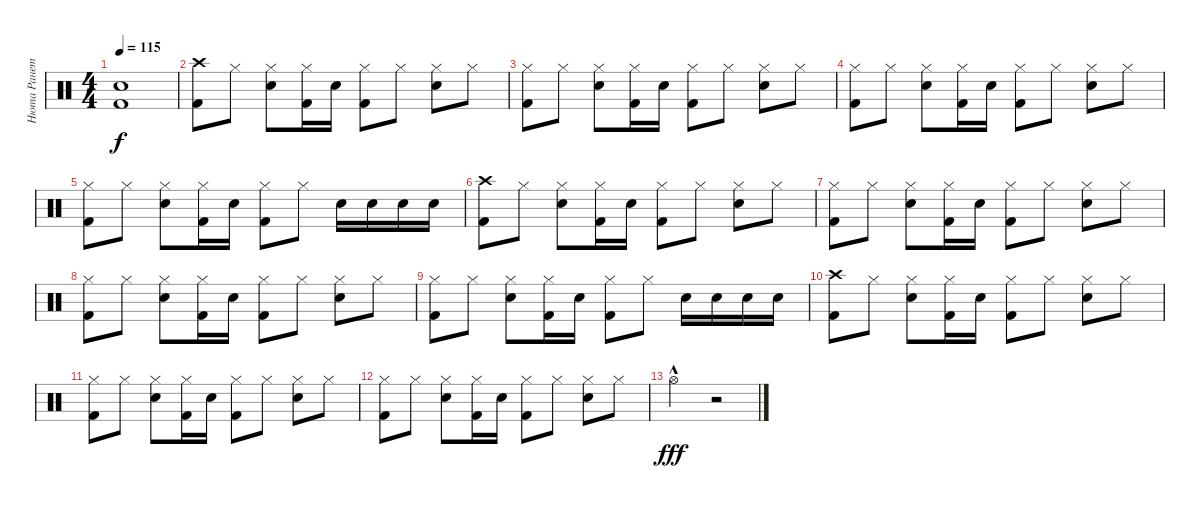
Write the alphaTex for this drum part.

\track ("Нюта Ранетка" "Нюта Ранет") {instrument percussion}
\staff {score}
\articulation defaults
\ts (4 4)
\tempo 115
\clef neutral
\ks c
("Electric Snare (hit)" "Kick (hit) 2").1{dy f} |
("Crash high (hit)" "Kick (hit) 2").8 "Hi-Hat (closed)".8 ("Hi-Hat (closed)" "Electric Snare (hit)").8 ("Hi-Hat (closed)" "Kick (hit) 2").16 "Electric Snare (hit)".16 ("Hi-Hat (closed)" "Kick (hit) 2").8 "Hi-Hat (closed)".8 ("Hi-Hat (closed)" "Electric Snare (hit)").8 "Hi-Hat (closed)".8 |
("Hi-Hat (closed)" "Kick (hit) 2").8 "Hi-Hat (closed)".8 ("Hi-Hat (closed)" "Electric Snare (hit)").8 ("Hi-Hat (closed)" "Kick (hit) 2").16 "Electric Snare (hit)".16 ("Hi-Hat (closed)" "Kick (hit) 2").8 "Hi-Hat (closed)".8 ("Hi-Hat (closed)" "Electric Snare (hit)").8 "Hi-Hat (closed)".8 |
("Hi-Hat (closed)" "Kick (hit) 2").8 "Hi-Hat (closed)".8 ("Hi-Hat (closed)" "Electric Snare (hit)").8 ("Hi-Hat (closed)" "Kick (hit) 2").16 "Electric Snare (hit)".16 ("Hi-Hat (closed)" "Kick (hit) 2").8 "Hi-Hat (closed)".8 ("Hi-Hat (closed)" "Electric Snare (hit)").8 "Hi-Hat (closed)".8 |
("Hi-Hat (closed)" "Kick (hit) 2").8 "Hi-Hat (closed)".8 ("Hi-Hat (closed)" "Electric Snare (hit)").8 ("Hi-Hat (closed)" "Kick (hit) 2").16 "Electric Snare (hit)".16 ("Hi-Hat (closed)" "Kick (hit) 2").8 "Hi-Hat (closed)".8 "Electric Snare (hit)".16 "Electric Snare (hit)".16 "Electric Snare (hit)".16 "Electric Snare (hit)".16 |
("Crash high (hit)" "Kick (hit) 2").8 "Hi-Hat (closed)".8 ("Hi-Hat (closed)" "Electric Snare (hit)").8 ("Hi-Hat (closed)" "Kick (hit) 2").16 "Electric Snare (hit)".16 ("Hi-Hat (closed)" "Kick (hit) 2").8 "Hi-Hat (closed)".8 ("Hi-Hat (closed)" "Electric Snare (hit)").8 "Hi-Hat (closed)".8 |
("Hi-Hat (closed)" "Kick (hit) 2").8 "Hi-Hat (closed)".8 ("Hi-Hat (closed)" "Electric Snare (hit)").8 ("Hi-Hat (closed)" "Kick (hit) 2").16 "Electric Snare (hit)".16 ("Hi-Hat (closed)" "Kick (hit) 2").8 "Hi-Hat (closed)".8 ("Hi-Hat (closed)" "Electric Snare (hit)").8 "Hi-Hat (closed)".8 |
("Hi-Hat (closed)" "Kick (hit) 2").8 "Hi-Hat (closed)".8 ("Hi-Hat (closed)" "Electric Snare (hit)").8 ("Hi-Hat (closed)" "Kick (hit) 2").16 "Electric Snare (hit)".16 ("Hi-Hat (closed)" "Kick (hit) 2").8 "Hi-Hat (closed)".8 ("Hi-Hat (closed)" "Electric Snare (hit)").8 "Hi-Hat (closed)".8 |
("Hi-Hat (closed)" "Kick (hit) 2").8 "Hi-Hat (closed)".8 ("Hi-Hat (closed)" "Electric Snare (hit)").8 ("Hi-Hat (closed)" "Kick (hit) 2").16 "Electric Snare (hit)".16 ("Hi-Hat (closed)" "Kick (hit) 2").8 "Hi-Hat (closed)".8 "Electric Snare (hit)".16 "Electric Snare (hit)".16 "Electric Snare (hit)".16 "Electric Snare (hit)".16 |
("Crash high (hit)" "Kick (hit) 2").8 "Hi-Hat (closed)".8 ("Hi-Hat (closed)" "Electric Snare (hit)").8 ("Hi-Hat (closed)" "Kick (hit) 2").16 "Electric Snare (hit)".16 ("Hi-Hat (closed)" "Kick (hit) 2").8 "Hi-Hat (closed)".8 ("Hi-Hat (closed)" "Electric Snare (hit)").8 "Hi-Hat (closed)".8 |
("Hi-Hat (closed)" "Kick (hit) 2").8 "Hi-Hat (closed)".8 ("Hi-Hat (closed)" "Electric Snare (hit)").8 ("Hi-Hat (closed)" "Kick (hit) 2").16 "Electric Snare (hit)".16 ("Hi-Hat (closed)" "Kick (hit) 2").8 "Hi-Hat (closed)".8 ("Hi-Hat (closed)" "Electric Snare (hit)").8 "Hi-Hat (closed)".8 |
("Hi-Hat (closed)" "Kick (hit) 2").8 "Hi-Hat (closed)".8 ("Hi-Hat (closed)" "Electric Snare (hit)").8 ("Hi-Hat (closed)" "Kick (hit) 2").16 "Electric Snare (hit)".16 ("Hi-Hat (closed)" "Kick (hit) 2").8 "Hi-Hat (closed)".8 ("Hi-Hat (closed)" "Electric Snare (hit)").8 "Hi-Hat (closed)".8 |
"Hi-Hat (open)"{hac}.2{dy fff} r.2
